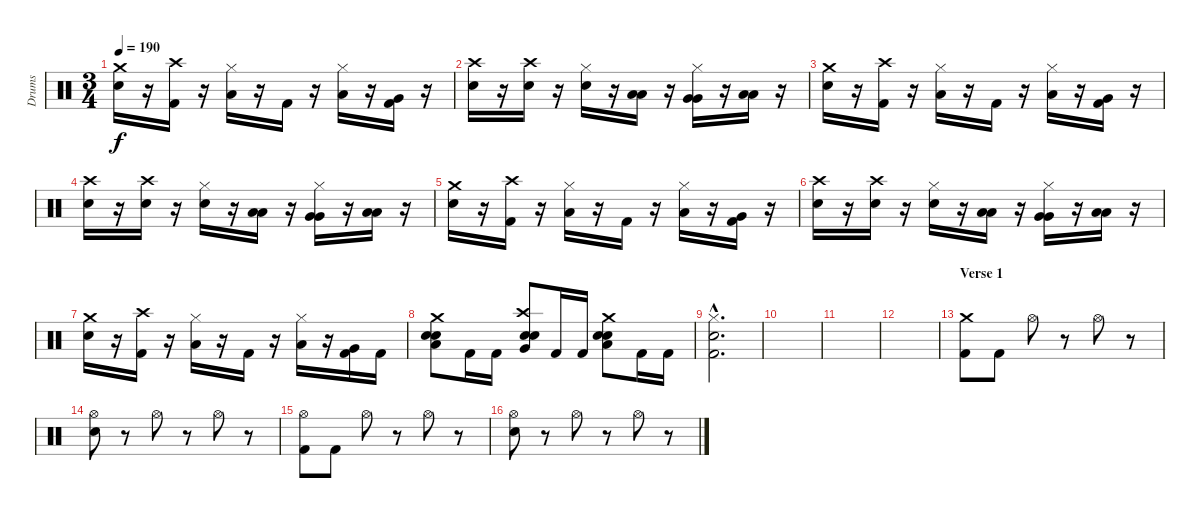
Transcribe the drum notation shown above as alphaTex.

\track ("Drums" "Drums") {instrument percussion}
\staff {score}
\articulation defaults
\ts (3 4)
\tempo 190
\clef neutral
\ks c
("Crash medium (hit)" "Snare (hit) 2").16{dy f} r.16 ("Crash high (hit)" "Kick (hit) 2").16 r.16 ("Hi-Hat (closed)" "Low Floor Tom (hit)").16 r.16 "Kick (hit) 2".16 r.16 ("Hi-Hat (closed)" "Low Tom (hit)").16 r.16 ("Very Low Tom (hit)" "Kick (hit) 2").16 r.16 |
("Crash high (hit)" "Snare (hit) 2").16 r.16 ("Crash high (hit)" "Snare (hit) 2").16 r.16 ("Hi-Hat (closed)" "Snare (hit) 2").16 r.16 ("Low Tom (hit)" "Low Tom (hit)").16 r.16 ("Hi-Hat (closed)" "Very Low Tom (hit)" "Very Low Tom (hit)").16 r.16 ("Low Floor Tom (hit)" "Low Floor Tom (hit)").16 r.16 |
("Crash medium (hit)" "Snare (hit) 2").16 r.16 ("Crash high (hit)" "Kick (hit) 2").16 r.16 ("Hi-Hat (closed)" "Low Floor Tom (hit)").16 r.16 "Kick (hit) 2".16 r.16 ("Hi-Hat (closed)" "Low Tom (hit)").16 r.16 ("Very Low Tom (hit)" "Kick (hit) 2").16 r.16 |
("Crash high (hit)" "Snare (hit) 2").16 r.16 ("Crash high (hit)" "Snare (hit) 2").16 r.16 ("Hi-Hat (closed)" "Snare (hit) 2").16 r.16 ("Low Tom (hit)" "Low Tom (hit)").16 r.16 ("Hi-Hat (closed)" "Very Low Tom (hit)" "Very Low Tom (hit)").16 r.16 ("Low Floor Tom (hit)" "Low Floor Tom (hit)").16 r.16 |
("Crash medium (hit)" "Snare (hit) 2").16 r.16 ("Crash high (hit)" "Kick (hit) 2").16 r.16 ("Hi-Hat (closed)" "Low Floor Tom (hit)").16 r.16 "Kick (hit) 2".16 r.16 ("Hi-Hat (closed)" "Low Tom (hit)").16 r.16 ("Very Low Tom (hit)" "Kick (hit) 2").16 r.16 |
("Crash high (hit)" "Snare (hit) 2").16 r.16 ("Crash high (hit)" "Snare (hit) 2").16 r.16 ("Hi-Hat (closed)" "Snare (hit) 2").16 r.16 ("Low Tom (hit)" "Low Tom (hit)").16 r.16 ("Hi-Hat (closed)" "Very Low Tom (hit)" "Very Low Tom (hit)").16 r.16 ("Low Floor Tom (hit)" "Low Floor Tom (hit)").16 r.16 |
("Crash medium (hit)" "Snare (hit) 2").16 r.16 ("Crash high (hit)" "Kick (hit) 2").16 r.16 ("Hi-Hat (closed)" "Low Floor Tom (hit)").16 r.16 "Kick (hit) 2".16 r.16 ("Hi-Hat (closed)" "Low Tom (hit)").16 r.16 ("Very Low Tom (hit)" "Kick (hit) 2").16 "Kick (hit) 2".16 |
("Crash medium (hit)" "Low Tom (hit)" "Snare (hit) 2" "Snare (hit) 2").8 "Kick (hit) 2".16 "Kick (hit) 2".16 ("Crash high (hit)" "Very Low Tom (hit)" "Snare (hit) 2" "Snare (hit) 2").8 "Kick (hit) 2".16 "Kick (hit) 2".16 ("Crash medium (hit)" "Low Tom (hit)" "Snare (hit) 2" "Snare (hit) 2").8 "Kick (hit) 2".16 "Kick (hit) 2".16 |
("Hi-Hat (closed)"{hac} "Snare (hit) 2"{hac} "Kick (hit) 2"{hac}).2{d} |
|
|
|
\section ("" "Verse 1")
("Crash medium (hit)" "Kick (hit) 2").8 "Kick (hit) 2".8 "Hi-Hat (open)".8 r.8 "Hi-Hat (open)".8 r.8 |
("Hi-Hat (open)" "Snare (hit) 2").8 r.8 "Hi-Hat (open)".8 r.8 "Hi-Hat (open)".8 r.8 |
("Hi-Hat (open)" "Kick (hit) 2").8 "Kick (hit) 2".8 "Hi-Hat (open)".8 r.8 "Hi-Hat (open)".8 r.8 |
("Hi-Hat (open)" "Snare (hit) 2").8 r.8 "Hi-Hat (open)".8 r.8 "Hi-Hat (open)".8 r.8
